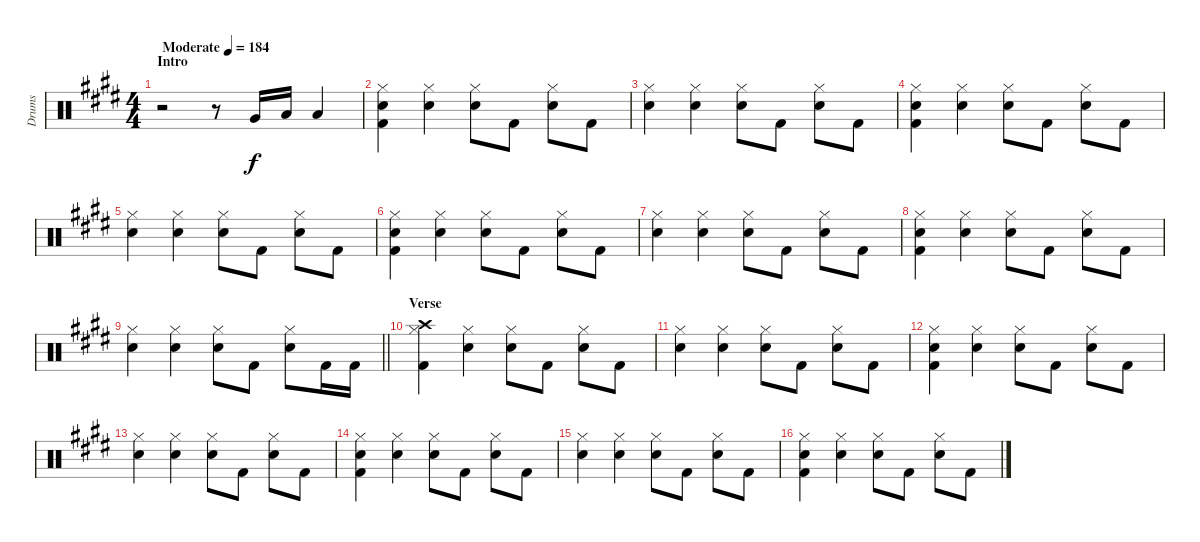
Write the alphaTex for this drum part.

\track ("Drums" "Drums") {instrument percussion}
\staff {score}
\articulation defaults
\ts (4 4)
\section ("" "Intro")
\tempo (184 "Moderate")
\clef neutral
\ks c#minor
r.2{dy f} r.8 "Very Low Tom (hit)".16 "Low Floor Tom (hit)".16 "Low Floor Tom (hit)".4 |
("Hi-Hat (closed)" "Snare (hit) 2" "Kick (hit) 2").4 ("Hi-Hat (closed)" "Snare (hit) 2").4 ("Hi-Hat (closed)" "Snare (hit) 2").8 "Kick (hit) 2".8 ("Hi-Hat (closed)" "Snare (hit) 2").8 "Kick (hit) 2".8 |
("Hi-Hat (closed)" "Snare (hit) 2").4 ("Hi-Hat (closed)" "Snare (hit) 2").4 ("Hi-Hat (closed)" "Snare (hit) 2").8 "Kick (hit) 2".8 ("Hi-Hat (closed)" "Snare (hit) 2").8 "Kick (hit) 2".8 |
("Hi-Hat (closed)" "Snare (hit) 2" "Kick (hit) 2").4 ("Hi-Hat (closed)" "Snare (hit) 2").4 ("Hi-Hat (closed)" "Snare (hit) 2").8 "Kick (hit) 2".8 ("Hi-Hat (closed)" "Snare (hit) 2").8 "Kick (hit) 2".8 |
("Hi-Hat (closed)" "Snare (hit) 2").4 ("Hi-Hat (closed)" "Snare (hit) 2").4 ("Hi-Hat (closed)" "Snare (hit) 2").8 "Kick (hit) 2".8 ("Hi-Hat (closed)" "Snare (hit) 2").8 "Kick (hit) 2".8 |
("Hi-Hat (closed)" "Snare (hit) 2" "Kick (hit) 2").4 ("Hi-Hat (closed)" "Snare (hit) 2").4 ("Hi-Hat (closed)" "Snare (hit) 2").8 "Kick (hit) 2".8 ("Hi-Hat (closed)" "Snare (hit) 2").8 "Kick (hit) 2".8 |
("Hi-Hat (closed)" "Snare (hit) 2").4 ("Hi-Hat (closed)" "Snare (hit) 2").4 ("Hi-Hat (closed)" "Snare (hit) 2").8 "Kick (hit) 2".8 ("Hi-Hat (closed)" "Snare (hit) 2").8 "Kick (hit) 2".8 |
("Hi-Hat (closed)" "Snare (hit) 2" "Kick (hit) 2").4 ("Hi-Hat (closed)" "Snare (hit) 2").4 ("Hi-Hat (closed)" "Snare (hit) 2").8 "Kick (hit) 2".8 ("Hi-Hat (closed)" "Snare (hit) 2").8 "Kick (hit) 2".8 |
\barLineRight lightlight
("Hi-Hat (closed)" "Snare (hit) 2").4 ("Hi-Hat (closed)" "Snare (hit) 2").4 ("Hi-Hat (closed)" "Snare (hit) 2").8 "Kick (hit) 2".8 ("Hi-Hat (closed)" "Snare (hit) 2").8 "Kick (hit) 2".16 "Kick (hit) 2".16 |
\section ("" "Verse")
("Crash high (hit)" "Hi-Hat (closed)" "Kick (hit) 2").4 ("Hi-Hat (closed)" "Snare (hit) 2").4 ("Hi-Hat (closed)" "Snare (hit) 2").8 "Kick (hit) 2".8 ("Hi-Hat (closed)" "Snare (hit) 2").8 "Kick (hit) 2".8 |
("Hi-Hat (closed)" "Snare (hit) 2").4 ("Hi-Hat (closed)" "Snare (hit) 2").4 ("Hi-Hat (closed)" "Snare (hit) 2").8 "Kick (hit) 2".8 ("Hi-Hat (closed)" "Snare (hit) 2").8 "Kick (hit) 2".8 |
("Hi-Hat (closed)" "Snare (hit) 2" "Kick (hit) 2").4 ("Hi-Hat (closed)" "Snare (hit) 2").4 ("Hi-Hat (closed)" "Snare (hit) 2").8 "Kick (hit) 2".8 ("Hi-Hat (closed)" "Snare (hit) 2").8 "Kick (hit) 2".8 |
("Hi-Hat (closed)" "Snare (hit) 2").4 ("Hi-Hat (closed)" "Snare (hit) 2").4 ("Hi-Hat (closed)" "Snare (hit) 2").8 "Kick (hit) 2".8 ("Hi-Hat (closed)" "Snare (hit) 2").8 "Kick (hit) 2".8 |
("Hi-Hat (closed)" "Snare (hit) 2" "Kick (hit) 2").4 ("Hi-Hat (closed)" "Snare (hit) 2").4 ("Hi-Hat (closed)" "Snare (hit) 2").8 "Kick (hit) 2".8 ("Hi-Hat (closed)" "Snare (hit) 2").8 "Kick (hit) 2".8 |
("Hi-Hat (closed)" "Snare (hit) 2").4 ("Hi-Hat (closed)" "Snare (hit) 2").4 ("Hi-Hat (closed)" "Snare (hit) 2").8 "Kick (hit) 2".8 ("Hi-Hat (closed)" "Snare (hit) 2").8 "Kick (hit) 2".8 |
("Hi-Hat (closed)" "Snare (hit) 2" "Kick (hit) 2").4 ("Hi-Hat (closed)" "Snare (hit) 2").4 ("Hi-Hat (closed)" "Snare (hit) 2").8 "Kick (hit) 2".8 ("Hi-Hat (closed)" "Snare (hit) 2").8 "Kick (hit) 2".8
